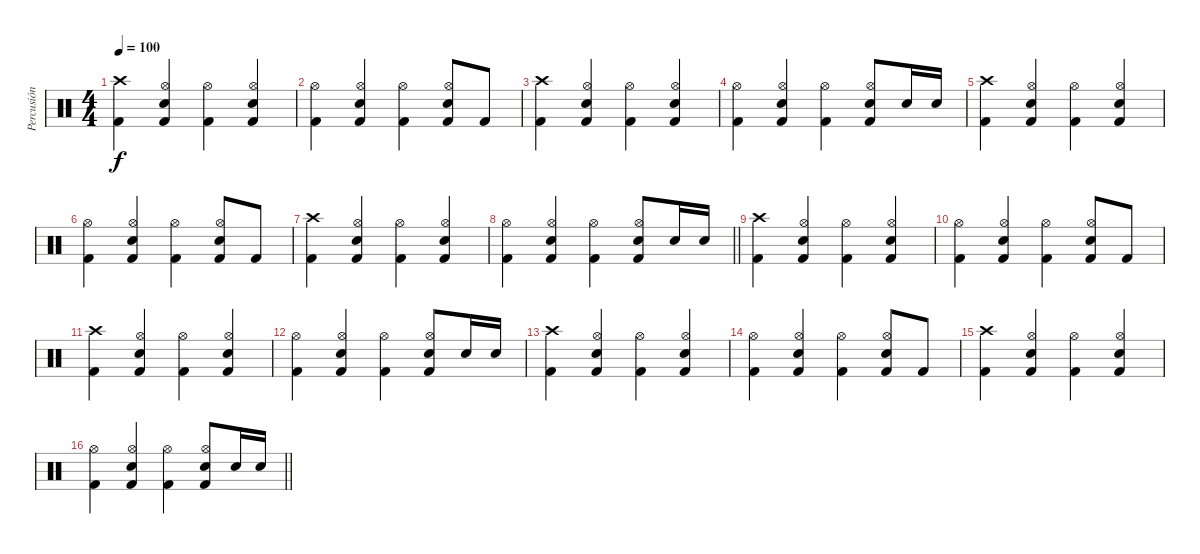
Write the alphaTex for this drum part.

\track ("Percusión" "Percusión") {instrument percussion}
\staff {score}
\articulation defaults
\ts (4 4)
\tempo 100
\clef neutral
\ks c
("Crash high (hit)" "Kick (hit) 2").4{dy f} ("Hi-Hat (open)" "Snare (hit) 2" "Kick (hit) 2").4 ("Hi-Hat (open)" "Kick (hit) 2").4 ("Hi-Hat (open)" "Snare (hit) 2" "Kick (hit) 2").4 |
("Hi-Hat (open)" "Kick (hit) 2").4 ("Hi-Hat (open)" "Snare (hit) 2" "Kick (hit) 2").4 ("Hi-Hat (open)" "Kick (hit) 2").4 ("Hi-Hat (open)" "Snare (hit) 2" "Kick (hit) 2").8 "Kick (hit) 2".8 |
("Crash high (hit)" "Kick (hit) 2").4 ("Hi-Hat (open)" "Snare (hit) 2" "Kick (hit) 2").4 ("Hi-Hat (open)" "Kick (hit) 2").4 ("Hi-Hat (open)" "Snare (hit) 2" "Kick (hit) 2").4 |
("Hi-Hat (open)" "Kick (hit) 2").4 ("Hi-Hat (open)" "Snare (hit) 2" "Kick (hit) 2").4 ("Hi-Hat (open)" "Kick (hit) 2").4 ("Hi-Hat (open)" "Snare (hit) 2" "Kick (hit) 2").8 "Snare (hit) 2".16 "Snare (hit) 2".16 |
("Crash high (hit)" "Kick (hit) 2").4 ("Hi-Hat (open)" "Snare (hit) 2" "Kick (hit) 2").4 ("Hi-Hat (open)" "Kick (hit) 2").4 ("Hi-Hat (open)" "Snare (hit) 2" "Kick (hit) 2").4 |
("Hi-Hat (open)" "Kick (hit) 2").4 ("Hi-Hat (open)" "Snare (hit) 2" "Kick (hit) 2").4 ("Hi-Hat (open)" "Kick (hit) 2").4 ("Hi-Hat (open)" "Snare (hit) 2" "Kick (hit) 2").8 "Kick (hit) 2".8 |
("Crash high (hit)" "Kick (hit) 2").4 ("Hi-Hat (open)" "Snare (hit) 2" "Kick (hit) 2").4 ("Hi-Hat (open)" "Kick (hit) 2").4 ("Hi-Hat (open)" "Snare (hit) 2" "Kick (hit) 2").4 |
\barLineRight lightlight
("Hi-Hat (open)" "Kick (hit) 2").4 ("Hi-Hat (open)" "Snare (hit) 2" "Kick (hit) 2").4 ("Hi-Hat (open)" "Kick (hit) 2").4 ("Hi-Hat (open)" "Snare (hit) 2" "Kick (hit) 2").8 "Snare (hit) 2".16 "Snare (hit) 2".16 |
("Crash high (hit)" "Kick (hit) 2").4 ("Hi-Hat (open)" "Snare (hit) 2" "Kick (hit) 2").4 ("Hi-Hat (open)" "Kick (hit) 2").4 ("Hi-Hat (open)" "Snare (hit) 2" "Kick (hit) 2").4 |
("Hi-Hat (open)" "Kick (hit) 2").4 ("Hi-Hat (open)" "Snare (hit) 2" "Kick (hit) 2").4 ("Hi-Hat (open)" "Kick (hit) 2").4 ("Hi-Hat (open)" "Snare (hit) 2" "Kick (hit) 2").8 "Kick (hit) 2".8 |
("Crash high (hit)" "Kick (hit) 2").4 ("Hi-Hat (open)" "Snare (hit) 2" "Kick (hit) 2").4 ("Hi-Hat (open)" "Kick (hit) 2").4 ("Hi-Hat (open)" "Snare (hit) 2" "Kick (hit) 2").4 |
("Hi-Hat (open)" "Kick (hit) 2").4 ("Hi-Hat (open)" "Snare (hit) 2" "Kick (hit) 2").4 ("Hi-Hat (open)" "Kick (hit) 2").4 ("Hi-Hat (open)" "Snare (hit) 2" "Kick (hit) 2").8 "Snare (hit) 2".16 "Snare (hit) 2".16 |
("Crash high (hit)" "Kick (hit) 2").4 ("Hi-Hat (open)" "Snare (hit) 2" "Kick (hit) 2").4 ("Hi-Hat (open)" "Kick (hit) 2").4 ("Hi-Hat (open)" "Snare (hit) 2" "Kick (hit) 2").4 |
("Hi-Hat (open)" "Kick (hit) 2").4 ("Hi-Hat (open)" "Snare (hit) 2" "Kick (hit) 2").4 ("Hi-Hat (open)" "Kick (hit) 2").4 ("Hi-Hat (open)" "Snare (hit) 2" "Kick (hit) 2").8 "Kick (hit) 2".8 |
("Crash high (hit)" "Kick (hit) 2").4 ("Hi-Hat (open)" "Snare (hit) 2" "Kick (hit) 2").4 ("Hi-Hat (open)" "Kick (hit) 2").4 ("Hi-Hat (open)" "Snare (hit) 2" "Kick (hit) 2").4 |
\barLineRight lightlight
("Hi-Hat (open)" "Kick (hit) 2").4 ("Hi-Hat (open)" "Snare (hit) 2" "Kick (hit) 2").4 ("Hi-Hat (open)" "Kick (hit) 2").4 ("Hi-Hat (open)" "Snare (hit) 2" "Kick (hit) 2").8 "Snare (hit) 2".16 "Snare (hit) 2".16
